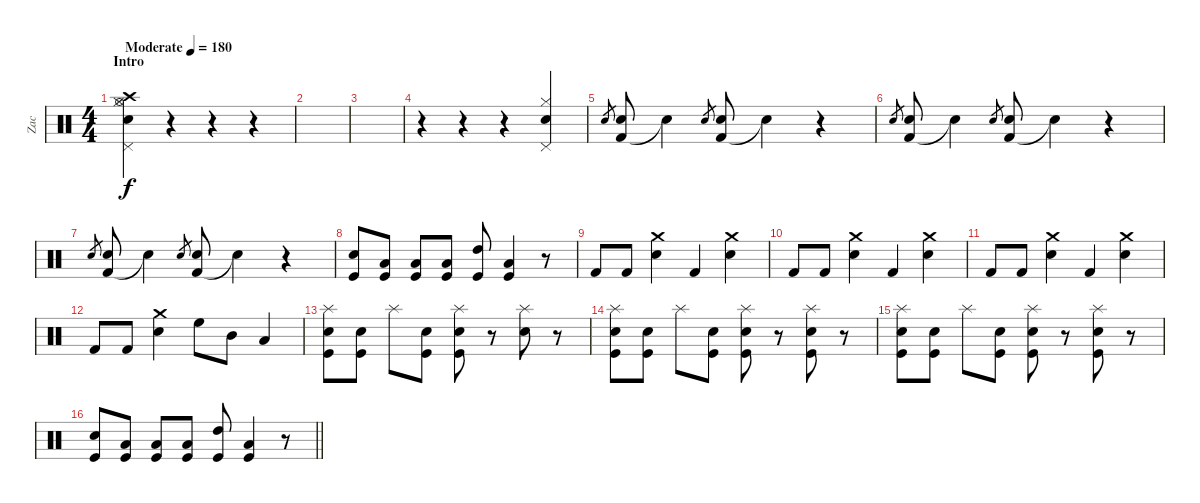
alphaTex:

\track ("Zac" "Zac") {instrument percussion}
\staff {score}
\articulation defaults
\ts (4 4)
\section ("" "Intro")
\tempo (180 "Moderate")
\clef neutral
\ks c
("Crash high (hit)" "Hi-Hat (open)" "Pedal Hi-Hat (hit)" "Hi-Hat (closed)" "Electric Snare (hit)").4{dy f} r.4 r.4 r.4 |
|
|
r.4 r.4 r.4 ("Pedal Hi-Hat (hit)" "Hi-Hat (closed)" "Electric Snare (hit)").4 |
"Electric Snare (hit)".8{gr} ("Kick (hit) 2" "Electric Snare (hit)").8 "Electric Snare (hit)"{t}.4 "Electric Snare (hit)".8{gr} ("Kick (hit) 2" "Electric Snare (hit)").8 "Electric Snare (hit)"{t}.4 r.4 |
"Electric Snare (hit)".8{gr} ("Kick (hit) 2" "Electric Snare (hit)").8 "Electric Snare (hit)"{t}.4 "Electric Snare (hit)".8{gr} ("Kick (hit) 2" "Electric Snare (hit)").8 "Electric Snare (hit)"{t}.4 r.4 |
"Electric Snare (hit)".8{gr} ("Kick (hit) 2" "Electric Snare (hit)").8 "Electric Snare (hit)"{t}.4 "Electric Snare (hit)".8{gr} ("Kick (hit) 2" "Electric Snare (hit)").8 "Electric Snare (hit)"{t}.4 r.4 |
("Kick (hit)" "Electric Snare (hit)").8 ("Kick (hit)" "Low Tom (hit)").8 ("Kick (hit)" "Low Tom (hit)").8 ("Kick (hit)" "Low Tom (hit)").8 ("Kick (hit)" "High Tom (hit)").8 ("Kick (hit)" "Low Tom (hit)").4 r.8 |
"Kick (hit) 2".8 "Kick (hit) 2".8 ("Crash medium (hit)" "Electric Snare (hit)").4 "Kick (hit) 2".4 ("Crash medium (hit)" "Electric Snare (hit)").4 |
"Kick (hit) 2".8 "Kick (hit) 2".8 ("Crash medium (hit)" "Electric Snare (hit)").4 "Kick (hit) 2".4 ("Crash medium (hit)" "Electric Snare (hit)").4 |
"Kick (hit) 2".8 "Kick (hit) 2".8 ("Crash medium (hit)" "Electric Snare (hit)").4 "Kick (hit) 2".4 ("Crash medium (hit)" "Electric Snare (hit)").4 |
"Kick (hit) 2".8 "Kick (hit) 2".8 ("Crash medium (hit)" "Electric Snare (hit)").4 "High Floor Tom (hit)".8 "Mid Tom (hit)".8 "Low Tom (hit)".4 |
("Kick (hit)" "Electric Snare (hit)" "Splash (hit)").8 ("Kick (hit)" "Electric Snare (hit)").8 "Splash (hit)".8 ("Kick (hit)" "Electric Snare (hit)").8 ("Kick (hit)" "Electric Snare (hit)" "Splash (hit)").8 r.8 ("Electric Snare (hit)" "Splash (hit)").8 r.8 |
("Kick (hit)" "Electric Snare (hit)" "Splash (hit)").8 ("Kick (hit)" "Electric Snare (hit)").8 "Splash (hit)".8 ("Kick (hit)" "Electric Snare (hit)").8 ("Kick (hit)" "Electric Snare (hit)" "Splash (hit)").8 r.8 ("Kick (hit)" "Electric Snare (hit)" "Splash (hit)").8 r.8 |
("Kick (hit)" "Electric Snare (hit)" "Splash (hit)").8 ("Kick (hit)" "Electric Snare (hit)").8 "Splash (hit)".8 ("Kick (hit)" "Electric Snare (hit)").8 ("Kick (hit)" "Electric Snare (hit)" "Splash (hit)").8 r.8 ("Kick (hit)" "Electric Snare (hit)" "Splash (hit)").8 r.8 |
\barLineRight lightlight
("Kick (hit)" "Electric Snare (hit)").8 ("Kick (hit)" "Low Tom (hit)").8 ("Kick (hit)" "Low Tom (hit)").8 ("Kick (hit)" "Low Tom (hit)").8 ("Kick (hit)" "High Tom (hit)").8 ("Kick (hit)" "Low Tom (hit)").4 r.8
